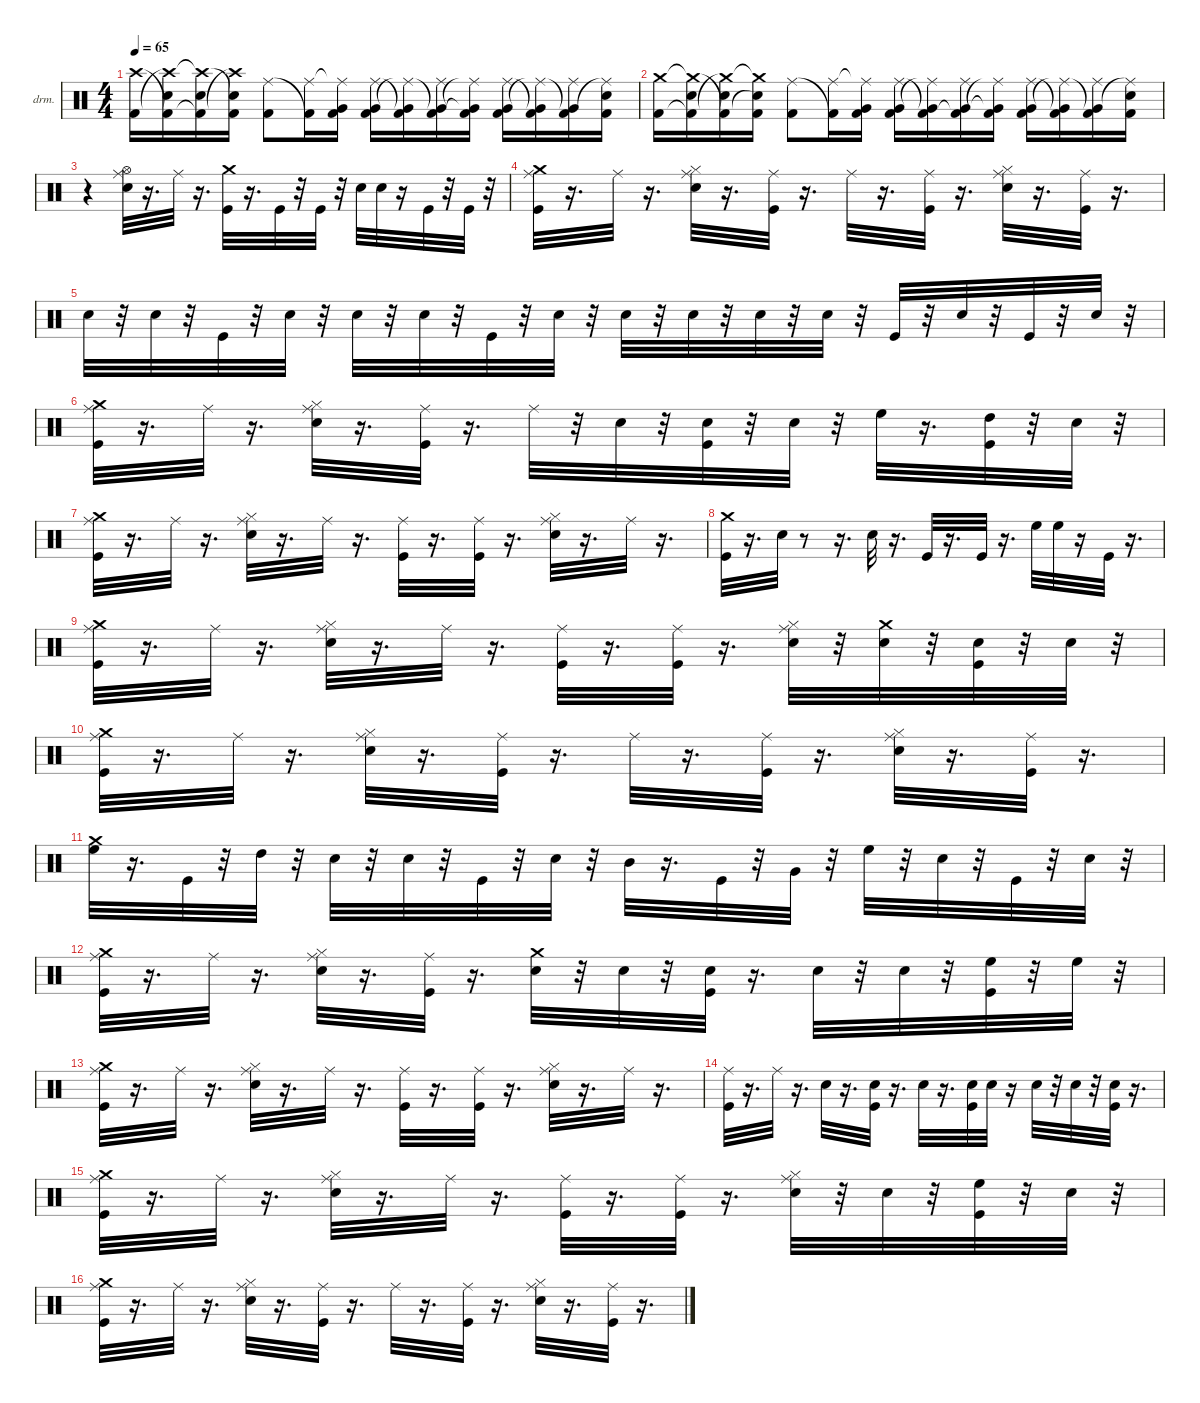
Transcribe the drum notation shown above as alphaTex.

\hideDynamics
\bracketExtendMode nobrackets
\firstSystemTrackNameOrientation horizontal
\otherSystemsTrackNameOrientation horizontal
\track ("Drums" "drm.") {instrument percussion}
\staff {score}
\articulation defaults
\ts (4 4)
\tempo 65
\clef neutral
\ks aminor
("Crash high (hit)"{t acc #} "Kick (hit) 2").16{dy ff beam Down} ("Kick (hit) 2"{t} "Crash high (hit)"{t acc #} "Snare (hit) 2").16{beam Down} ("Kick (hit) 2"{t} "Crash high (hit)"{t acc #} "Snare (hit) 2").16{beam Down} ("Crash high (hit)"{t acc #} "Snare (hit) 2"{t} "Kick (hit) 2").16{beam Down} ("Ride (middle)"{acc #} "Kick (hit) 2").8{beam Down} ("Kick (hit) 2"{t} "Ride (middle)"{acc #}).16{beam Down} ("Kick (hit) 2" "Ride (middle)"{t acc #} "Very Low Tom (hit)").16{beam Down} ("Very Low Tom (hit)" "Ride (middle)"{acc #} "Kick (hit) 2").16{beam Down} ("Ride (middle)"{t acc #} "Kick (hit) 2"{t} "Very Low Tom (hit)").16{beam Down} ("Kick (hit) 2"{t} "Very Low Tom (hit)" "Ride (middle)"{acc #}).16{beam Down} ("Very Low Tom (hit)"{t} "Ride (middle)"{t acc #} "Kick (hit) 2").16{beam Down} ("Very Low Tom (hit)" "Ride (middle)"{acc #} "Kick (hit) 2").16{beam Down} ("Ride (middle)"{t acc #} "Kick (hit) 2"{t} "Very Low Tom (hit)").16{beam Down} ("Kick (hit) 2"{t} "Very Low Tom (hit)" "Ride (middle)"{acc #}).16{beam Down} ("Ride (middle)"{t acc #} "Kick (hit) 2" "Snare (hit) 2").16{beam Down} |
("Kick (hit) 2" "Crash medium (hit)").16{beam Down} ("Kick (hit) 2"{t} "Crash medium (hit)"{t} "Snare (hit) 2").16{beam Down} ("Crash medium (hit)"{t} "Kick (hit) 2"{t} "Snare (hit) 2").16{beam Down} ("Crash medium (hit)"{t} "Snare (hit) 2"{t} "Kick (hit) 2").16{beam Down} ("Ride (middle)"{acc #} "Kick (hit) 2").8{beam Down} ("Kick (hit) 2"{t} "Ride (middle)"{acc #}).16{beam Down} ("Kick (hit) 2" "Ride (middle)"{t acc #} "Very Low Tom (hit)").16{beam Down} ("Very Low Tom (hit)" "Ride (middle)"{acc #} "Kick (hit) 2").16{beam Down} ("Ride (middle)"{t acc #} "Kick (hit) 2"{t} "Very Low Tom (hit)").16{beam Down} ("Very Low Tom (hit)" "Kick (hit) 2"{t} "Ride (middle)"{acc #}).16{beam Down} ("Very Low Tom (hit)"{t} "Ride (middle)"{t acc #} "Kick (hit) 2").16{beam Down} ("Very Low Tom (hit)" "Ride (middle)"{acc #} "Kick (hit) 2").16{beam Down} ("Ride (middle)"{t acc #} "Kick (hit) 2"{t} "Very Low Tom (hit)").16{beam Down} ("Kick (hit) 2"{t} "Very Low Tom (hit)" "Ride (middle)"{acc #}).16{beam Down} ("Kick (hit) 2" "Ride (middle)"{t acc #} "Snare (hit) 2").16{beam Down} |
r.4{beam Down} ("Electric Snare (hit)" "Hi-Hat (open)"{acc #} "Ride (middle)"{acc #}).32{dy fff beam Down} r.16{d beam Down} "Ride (middle)"{acc #}.32{dy f beam Down} r.16{d beam Down} ("Kick (hit)" "Crash medium (hit)").32{beam Down} r.16{d beam Down} "Kick (hit)".32{beam Up} r.32{beam Up} "Kick (hit)".32{beam Up} r.32{beam Up} "Electric Snare (hit)".32{dy fff beam Down} "Electric Snare (hit)".32{dy f beam Down} r.16{beam Down} "Kick (hit)".32{beam Up} r.32{beam Up} "Kick (hit)".32{beam Up} r.32{beam Up} |
("Crash medium (hit)" "Kick (hit)" "Ride (middle)"{acc #}).32{dy fff beam Down} r.16{d beam Down} "Ride (middle)"{acc #}.32{dy f beam Down} r.16{d beam Down} ("Electric Snare (hit)" "Hi-Hat (closed)"{acc #} "Ride (middle)"{acc #}).32{dy fff beam Down} r.16{d beam Down} ("Kick (hit)" "Ride (middle)"{acc #}).32{beam Down} r.16{d beam Down} "Ride (middle)"{acc #}.32{dy f beam Down} r.16{d beam Down} ("Kick (hit)" "Ride (middle)"{acc #}).32{beam Down} r.16{d beam Down} ("Electric Snare (hit)" "Hi-Hat (closed)"{acc #} "Ride (middle)"{acc #}).32{dy fff beam Down} r.16{d beam Down} ("Kick (hit)" "Ride (middle)"{acc #}).32{dy f beam Down} r.16{d beam Down} |
"Electric Snare (hit)".32{dy fff beam Down} r.32{beam Down} "Electric Snare (hit)".32{dy f beam Down} r.32{beam Down} "Kick (hit)".32{beam Up} r.32{beam Up} "Electric Snare (hit)".32{dy mf beam Down} r.32{beam Down} "Electric Snare (hit)".32{dy fff beam Down} r.32{beam Down} "Electric Snare (hit)".32{dy pp beam Down} r.32{beam Down} "Kick (hit)".32{dy f beam Up} r.32{beam Up} "Electric Snare (hit)".32{dy pp beam Down} r.32{beam Down} "Electric Snare (hit)".32{dy fff beam Down} r.32{beam Down} "Electric Snare (hit)".32{dy mp beam Down} r.32{beam Down} "Electric Snare (hit)".32{dy fff beam Down} r.32{beam Down} "Electric Snare (hit)".32{dy mp beam Down} r.32{beam Down} "Kick (hit)".32{dy f beam Up} r.32{beam Up} "Electric Snare (hit)".32{beam Down} r.32{beam Down} "Kick (hit)".32{beam Up} r.32{beam Up} "Electric Snare (hit)".32{dy mf beam Down} r.32{beam Down} |
("Crash medium (hit)" "Kick (hit)" "Ride (middle)"{acc #}).32{dy fff beam Down} r.16{d beam Down} "Ride (middle)"{acc #}.32{dy f beam Down} r.16{d beam Down} ("Electric Snare (hit)" "Hi-Hat (closed)"{acc #} "Ride (middle)"{acc #}).32{dy fff beam Down} r.16{d beam Down} ("Kick (hit)" "Ride (middle)"{acc #}).32{beam Down} r.16{d beam Down} "Ride (middle)"{acc #}.32{beam Down} r.32{beam Down} "Electric Snare (hit)".32{dy pp beam Down} r.32{beam Down} ("Kick (hit)" "Electric Snare (hit)").32{dy f beam Up} r.32{beam Up} "Electric Snare (hit)".32{dy mf beam Down} r.32{beam Down} "High Floor Tom (hit)".32{dy fff beam Down} r.16{d beam Down} ("Kick (hit)" "High Tom (hit)").32{dy f beam Up} r.32{beam Up} "Electric Snare (hit)".32{dy pp beam Down} r.32{beam Down} |
("Crash medium (hit)" "Kick (hit)" "Ride (middle)"{acc #}).32{dy fff beam Down} r.16{d beam Down} "Ride (middle)"{acc #}.32{dy f beam Down} r.16{d beam Down} ("Electric Snare (hit)" "Hi-Hat (closed)"{acc #} "Ride (middle)"{acc #}).32{dy fff beam Down} r.16{d beam Down} "Ride (middle)"{acc #}.32{beam Down} r.16{d beam Down} ("Kick (hit)" "Ride (middle)"{acc #}).32{beam Down} r.16{d beam Down} ("Kick (hit)" "Ride (middle)"{acc #}).32{dy f beam Down} r.16{d beam Down} ("Electric Snare (hit)" "Hi-Hat (closed)"{acc #} "Ride (middle)"{acc #}).32{dy fff beam Down} r.16{d beam Down} "Ride (middle)"{acc #}.32{dy mp beam Down} r.16{d beam Down} |
("Kick (hit)" "Crash medium (hit)").32{dy f beam Down} r.16{d beam Down} "Electric Snare (hit)".32{dy fff beam Down} r.8{beam Down} r.16{d beam Down} "Electric Snare (hit)".32{dy f beam Down} r.16{d beam Down} "Kick (hit)".32{beam Up} r.16{d beam Up} "Kick (hit)".32{beam Up} r.16{d beam Up} "High Floor Tom (hit)".32{dy fff beam Down} "High Floor Tom (hit)".32{dy f beam Down} r.16{beam Down} "Kick (hit)".32{beam Up} r.16{d beam Up} |
("Crash medium (hit)" "Kick (hit)" "Ride (middle)"{acc #}).32{dy fff beam Down} r.16{d beam Down} "Ride (middle)"{acc #}.32{dy f beam Down} r.16{d beam Down} ("Electric Snare (hit)" "Hi-Hat (closed)"{acc #} "Ride (middle)"{acc #}).32{dy fff beam Down} r.16{d beam Down} "Ride (middle)"{acc #}.32{beam Down} r.16{d beam Down} ("Kick (hit)" "Ride (middle)"{acc #}).32{beam Down} r.16{d beam Down} ("Kick (hit)" "Ride (middle)"{acc #}).32{dy f beam Down} r.16{d beam Down} ("Electric Snare (hit)" "Hi-Hat (closed)"{acc #} "Ride (middle)"{acc #}).32{dy fff beam Down} r.32{beam Down} ("Electric Snare (hit)" "Crash medium (hit)").32{dy mf beam Down} r.32{beam Down} ("Kick (hit)" "Electric Snare (hit)").32{dy f beam Up} r.32{beam Up} "Electric Snare (hit)".32{dy p beam Down} r.32{beam Down} |
("Crash medium (hit)" "Kick (hit)" "Ride (middle)"{acc #}).32{dy fff beam Down} r.16{d beam Down} "Ride (middle)"{acc #}.32{dy f beam Down} r.16{d beam Down} ("Electric Snare (hit)" "Hi-Hat (closed)"{acc #} "Ride (middle)"{acc #}).32{dy fff beam Down} r.16{d beam Down} ("Kick (hit)" "Ride (middle)"{acc #}).32{beam Down} r.16{d beam Down} "Ride (middle)"{acc #}.32{dy f beam Down} r.16{d beam Down} ("Kick (hit)" "Ride (middle)"{acc #}).32{beam Down} r.16{d beam Down} ("Electric Snare (hit)" "Hi-Hat (closed)"{acc #} "Ride (middle)"{acc #}).32{dy fff beam Down} r.16{d beam Down} ("Kick (hit)" "Ride (middle)"{acc #}).32{dy f beam Down} r.16{d beam Down} |
("High Floor Tom (hit)" "Crash medium (hit)").32{dy fff beam Down} r.16{d beam Down} "Kick (hit)".32{dy f beam Up} r.32{beam Up} "High Tom (hit)".32{beam Down} r.32{beam Down} "Electric Snare (hit)".32{dy mp beam Down} r.32{beam Down} "Electric Snare (hit)".32{dy p beam Down} r.32{beam Down} "Kick (hit)".32{dy f beam Up} r.32{beam Up} "Electric Snare (hit)".32{dy p beam Down} r.32{beam Down} "Mid Tom (hit)".32{dy f beam Down} r.16{d beam Down} "Kick (hit)".32{beam Up} r.32{beam Up} "Very Low Tom (hit)".32{beam Up} r.32{beam Up} "High Floor Tom (hit)".32{dy mp beam Down} r.32{beam Down} "Electric Snare (hit)".32{dy p beam Down} r.32{beam Down} "Kick (hit)".32{dy f beam Up} r.32{beam Up} "Electric Snare (hit)".32{dy pp beam Down} r.32{beam Down} |
("Crash medium (hit)" "Kick (hit)" "Ride (middle)"{acc #}).32{dy fff beam Down} r.16{d beam Down} "Ride (middle)"{acc #}.32{dy f beam Down} r.16{d beam Down} ("Electric Snare (hit)" "Hi-Hat (closed)"{acc #} "Ride (middle)"{acc #}).32{dy fff beam Down} r.16{d beam Down} ("Kick (hit)" "Ride (middle)"{acc #}).32{beam Down} r.16{d beam Down} ("Electric Snare (hit)" "Crash medium (hit)").32{dy p beam Down} r.32{beam Down} "Electric Snare (hit)".32{dy pp beam Down} r.32{beam Down} ("Kick (hit)" "Electric Snare (hit)").32{dy f beam Up} r.16{d beam Up} "Electric Snare (hit)".32{dy pp beam Down} r.32{beam Down} "Electric Snare (hit)".32{dy p beam Down} r.32{beam Down} ("Kick (hit)" "High Floor Tom (hit)").32{dy f beam Up} r.32{beam Up} "High Floor Tom (hit)".32{beam Down} r.32{beam Down} |
("Crash medium (hit)" "Kick (hit)" "Ride (middle)"{acc #}).32{dy fff beam Down} r.16{d beam Down} "Ride (middle)"{acc #}.32{dy f beam Down} r.16{d beam Down} ("Electric Snare (hit)" "Hi-Hat (closed)"{acc #} "Ride (middle)"{acc #}).32{dy fff beam Down} r.16{d beam Down} "Ride (middle)"{acc #}.32{beam Down} r.16{d beam Down} ("Kick (hit)" "Ride (middle)"{acc #}).32{beam Down} r.16{d beam Down} ("Kick (hit)" "Ride (middle)"{acc #}).32{dy f beam Down} r.16{d beam Down} ("Electric Snare (hit)" "Hi-Hat (closed)"{acc #} "Ride (middle)"{acc #}).32{dy fff beam Down} r.16{d beam Down} "Ride (middle)"{acc #}.32{dy mp beam Down} r.16{d beam Down} |
("Kick (hit)" "Ride (middle)"{acc #}).32{dy fff beam Down} r.16{d beam Down} "Ride (middle)"{acc #}.32{dy f beam Down} r.16{d beam Down} "Electric Snare (hit)".32{dy fff beam Down} r.16{d beam Down} ("Kick (hit)" "Electric Snare (hit)").32{beam Up} r.16{d beam Up} "Electric Snare (hit)".32{dy pp beam Down} r.16{d beam Down} ("Kick (hit)" "Electric Snare (hit)").32{dy f beam Up} "Electric Snare (hit)".32{dy mp beam Up} r.16{beam Up} "Electric Snare (hit)".32{dy p beam Down} r.32{beam Down} "Electric Snare (hit)".32{beam Down} r.32{beam Down} ("Kick (hit)" "Electric Snare (hit)").32{dy f beam Up} r.16{d beam Up} |
("Crash medium (hit)" "Kick (hit)" "Ride (middle)"{acc #}).32{dy fff beam Down} r.16{d beam Down} "Ride (middle)"{acc #}.32{dy f beam Down} r.16{d beam Down} ("Electric Snare (hit)" "Hi-Hat (closed)"{acc #} "Ride (middle)"{acc #}).32{dy fff beam Down} r.16{d beam Down} "Ride (middle)"{acc #}.32{dy f beam Down} r.16{d beam Down} ("Kick (hit)" "Ride (middle)"{acc #}).32{dy fff beam Down} r.16{d beam Down} ("Kick (hit)" "Ride (middle)"{acc #}).32{dy f beam Down} r.16{d beam Down} ("Electric Snare (hit)" "Hi-Hat (closed)"{acc #} "Ride (middle)"{acc #}).32{dy fff beam Down} r.32{beam Down} "Electric Snare (hit)".32{dy mf beam Down} r.32{beam Down} ("Kick (hit)" "High Floor Tom (hit)").32{dy f beam Up} r.32{beam Up} "Electric Snare (hit)".32{dy p beam Down} r.32{beam Down} |
("Crash medium (hit)" "Kick (hit)" "Ride (middle)"{acc #}).32{dy fff beam Down} r.16{d beam Down} "Ride (middle)"{acc #}.32{dy f beam Down} r.16{d beam Down} ("Electric Snare (hit)" "Hi-Hat (closed)"{acc #} "Ride (middle)"{acc #}).32{dy fff beam Down} r.16{d beam Down} ("Kick (hit)" "Ride (middle)"{acc #}).32{beam Down} r.16{d beam Down} "Ride (middle)"{acc #}.32{dy f beam Down} r.16{d beam Down} ("Kick (hit)" "Ride (middle)"{acc #}).32{beam Down} r.16{d beam Down} ("Electric Snare (hit)" "Hi-Hat (closed)"{acc #} "Ride (middle)"{acc #}).32{dy fff beam Down} r.16{d beam Down} ("Kick (hit)" "Ride (middle)"{acc #}).32{dy f beam Down} r.16{d beam Down}
